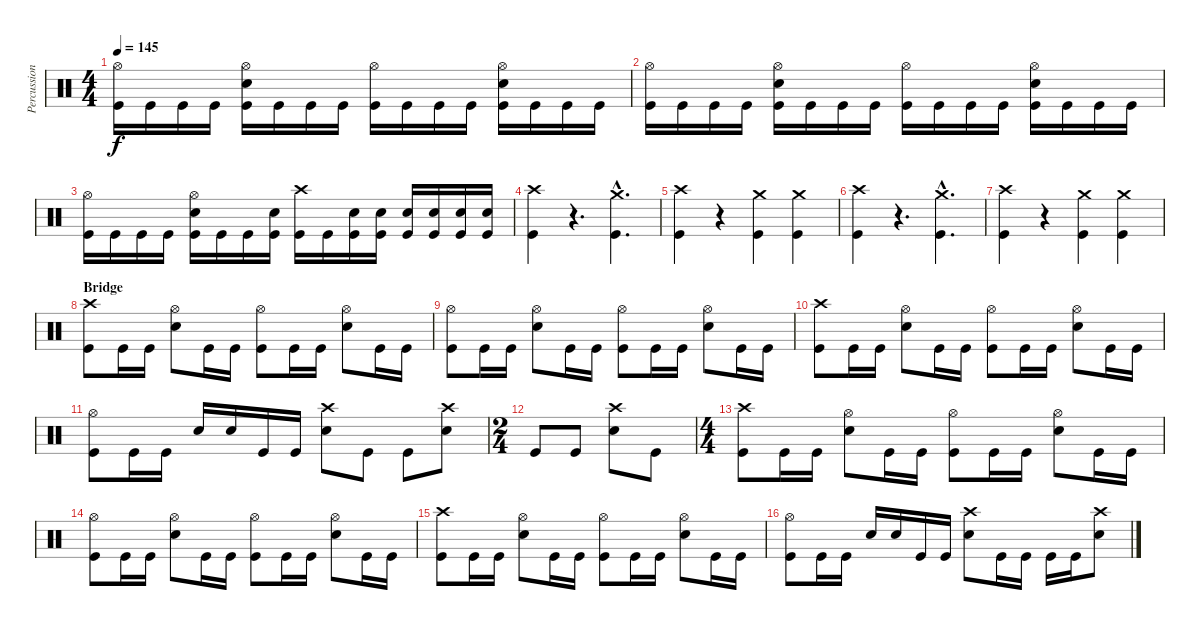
\track ("Percussions" "Percussion") {instrument percussion}
\staff {score}
\articulation defaults
\ts (4 4)
\tempo 145
\clef neutral
\ks c
("Hi-Hat (open)" "Kick (hit)").16{dy f} "Kick (hit)".16 "Kick (hit)".16 "Kick (hit)".16 ("Hi-Hat (open)" "Snare (hit) 2" "Kick (hit)").16 "Kick (hit)".16 "Kick (hit)".16 "Kick (hit)".16 ("Hi-Hat (open)" "Kick (hit)").16 "Kick (hit)".16 "Kick (hit)".16 "Kick (hit)".16 ("Hi-Hat (open)" "Snare (hit) 2" "Kick (hit)").16 "Kick (hit)".16 "Kick (hit)".16 "Kick (hit)".16 |
("Hi-Hat (open)" "Kick (hit)").16 "Kick (hit)".16 "Kick (hit)".16 "Kick (hit)".16 ("Hi-Hat (open)" "Snare (hit) 2" "Kick (hit)").16 "Kick (hit)".16 "Kick (hit)".16 "Kick (hit)".16 ("Hi-Hat (open)" "Kick (hit)").16 "Kick (hit)".16 "Kick (hit)".16 "Kick (hit)".16 ("Hi-Hat (open)" "Snare (hit) 2" "Kick (hit)").16 "Kick (hit)".16 "Kick (hit)".16 "Kick (hit)".16 |
("Hi-Hat (open)" "Kick (hit)").16 "Kick (hit)".16 "Kick (hit)".16 "Kick (hit)".16 ("Hi-Hat (open)" "Snare (hit) 2" "Kick (hit)").16 "Kick (hit)".16 "Kick (hit)".16 ("Snare (hit) 2" "Kick (hit)").16 ("Crash high (hit)" "Kick (hit)").16 "Kick (hit)".16 ("Snare (hit) 2" "Kick (hit)").16 ("Snare (hit) 2" "Kick (hit)").16 ("Snare (hit) 2" "Kick (hit)").16 ("Snare (hit) 2" "Kick (hit)").16 ("Snare (hit) 2" "Kick (hit)").16 ("Snare (hit) 2" "Kick (hit)").16 |
("Crash high (hit)" "Kick (hit)").4 r.4{d} ("Crash medium (hit)"{hac} "Kick (hit)"{hac}).4{d} |
("Crash high (hit)" "Kick (hit)").4 r.4 ("Crash medium (hit)" "Kick (hit)").4 ("Crash medium (hit)" "Kick (hit)").4 |
("Crash high (hit)" "Kick (hit)").4 r.4{d} ("Crash medium (hit)"{hac} "Kick (hit)"{hac}).4{d} |
("Crash high (hit)" "Kick (hit)").4 r.4 ("Crash medium (hit)" "Kick (hit)").4 ("Crash medium (hit)" "Kick (hit)").4 |
\section ("" "Bridge")
("Crash high (hit)" "Kick (hit)").8 "Kick (hit)".16 "Kick (hit)".16 ("Hi-Hat (open)" "Snare (hit) 2").8 "Kick (hit)".16 "Kick (hit)".16 ("Hi-Hat (open)" "Kick (hit)").8 "Kick (hit)".16 "Kick (hit)".16 ("Hi-Hat (open)" "Snare (hit) 2").8 "Kick (hit)".16 "Kick (hit)".16 |
("Hi-Hat (open)" "Kick (hit)").8 "Kick (hit)".16 "Kick (hit)".16 ("Hi-Hat (open)" "Snare (hit) 2").8 "Kick (hit)".16 "Kick (hit)".16 ("Hi-Hat (open)" "Kick (hit)").8 "Kick (hit)".16 "Kick (hit)".16 ("Hi-Hat (open)" "Snare (hit) 2").8 "Kick (hit)".16 "Kick (hit)".16 |
("Crash high (hit)" "Kick (hit)").8 "Kick (hit)".16 "Kick (hit)".16 ("Hi-Hat (open)" "Snare (hit) 2").8 "Kick (hit)".16 "Kick (hit)".16 ("Hi-Hat (open)" "Kick (hit)").8 "Kick (hit)".16 "Kick (hit)".16 ("Hi-Hat (open)" "Snare (hit) 2").8 "Kick (hit)".16 "Kick (hit)".16 |
("Hi-Hat (open)" "Kick (hit)").8 "Kick (hit)".16 "Kick (hit)".16 "Snare (hit) 2".16 "Snare (hit) 2".16 "Kick (hit)".16 "Kick (hit)".16 ("Crash high (hit)" "Snare (hit) 2").8 "Kick (hit)".8 "Kick (hit)".8 ("Crash high (hit)" "Snare (hit) 2").8 |
\ts (2 4)
"Kick (hit)".8 "Kick (hit)".8 ("Crash high (hit)" "Snare (hit) 2").8 "Kick (hit)".8 |
\ts (4 4)
("Crash high (hit)" "Kick (hit)").8 "Kick (hit)".16 "Kick (hit)".16 ("Hi-Hat (open)" "Snare (hit) 2").8 "Kick (hit)".16 "Kick (hit)".16 ("Hi-Hat (open)" "Kick (hit)").8 "Kick (hit)".16 "Kick (hit)".16 ("Hi-Hat (open)" "Snare (hit) 2").8 "Kick (hit)".16 "Kick (hit)".16 |
("Hi-Hat (open)" "Kick (hit)").8 "Kick (hit)".16 "Kick (hit)".16 ("Hi-Hat (open)" "Snare (hit) 2").8 "Kick (hit)".16 "Kick (hit)".16 ("Hi-Hat (open)" "Kick (hit)").8 "Kick (hit)".16 "Kick (hit)".16 ("Hi-Hat (open)" "Snare (hit) 2").8 "Kick (hit)".16 "Kick (hit)".16 |
("Crash high (hit)" "Kick (hit)").8 "Kick (hit)".16 "Kick (hit)".16 ("Hi-Hat (open)" "Snare (hit) 2").8 "Kick (hit)".16 "Kick (hit)".16 ("Hi-Hat (open)" "Kick (hit)").8 "Kick (hit)".16 "Kick (hit)".16 ("Hi-Hat (open)" "Snare (hit) 2").8 "Kick (hit)".16 "Kick (hit)".16 |
("Hi-Hat (open)" "Kick (hit)").8 "Kick (hit)".16 "Kick (hit)".16 "Snare (hit) 2".16 "Snare (hit) 2".16 "Kick (hit)".16 "Kick (hit)".16 ("Crash high (hit)" "Snare (hit) 2").8 "Kick (hit)".16 "Kick (hit)".16 "Kick (hit)".16 "Kick (hit)".16 ("Crash high (hit)" "Snare (hit) 2").8
